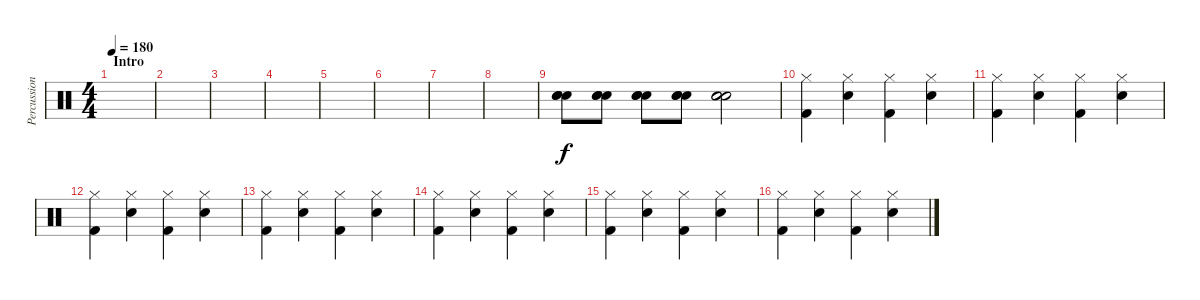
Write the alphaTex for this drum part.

\track ("Percussion" "Percussion") {instrument percussion}
\staff {score}
\articulation defaults
\ts (4 4)
\section ("" "Intro")
\tempo 180
\clef neutral
\ks c
|
|
|
|
|
|
|
|
("Electric Snare (hit)" "Electric Snare (hit)" "Electric Snare (hit)").8 ("Electric Snare (hit)" "Electric Snare (hit)" "Electric Snare (hit)").8 ("Electric Snare (hit)" "Electric Snare (hit)" "Electric Snare (hit)").8 ("Electric Snare (hit)" "Electric Snare (hit)" "Electric Snare (hit)").8 ("Electric Snare (hit)" "Electric Snare (hit)" "Electric Snare (hit)").2 |
("Hi-Hat (closed)" "Kick (hit) 2").4 ("Hi-Hat (closed)" "Electric Snare (hit)").4 ("Hi-Hat (closed)" "Kick (hit) 2").4 ("Hi-Hat (closed)" "Electric Snare (hit)").4 |
("Hi-Hat (closed)" "Kick (hit) 2").4 ("Hi-Hat (closed)" "Electric Snare (hit)").4 ("Hi-Hat (closed)" "Kick (hit) 2").4 ("Hi-Hat (closed)" "Electric Snare (hit)").4 |
("Hi-Hat (closed)" "Kick (hit) 2").4 ("Hi-Hat (closed)" "Electric Snare (hit)").4 ("Hi-Hat (closed)" "Kick (hit) 2").4 ("Hi-Hat (closed)" "Electric Snare (hit)").4 |
("Hi-Hat (closed)" "Kick (hit) 2").4 ("Hi-Hat (closed)" "Electric Snare (hit)").4 ("Hi-Hat (closed)" "Kick (hit) 2").4 ("Hi-Hat (closed)" "Electric Snare (hit)").4 |
("Hi-Hat (closed)" "Kick (hit) 2").4 ("Hi-Hat (closed)" "Electric Snare (hit)").4 ("Hi-Hat (closed)" "Kick (hit) 2").4 ("Hi-Hat (closed)" "Electric Snare (hit)").4 |
("Hi-Hat (closed)" "Kick (hit) 2").4 ("Hi-Hat (closed)" "Electric Snare (hit)").4 ("Hi-Hat (closed)" "Kick (hit) 2").4 ("Hi-Hat (closed)" "Electric Snare (hit)").4 |
("Hi-Hat (closed)" "Kick (hit) 2").4 ("Hi-Hat (closed)" "Electric Snare (hit)").4 ("Hi-Hat (closed)" "Kick (hit) 2").4 ("Hi-Hat (closed)" "Electric Snare (hit)").4
